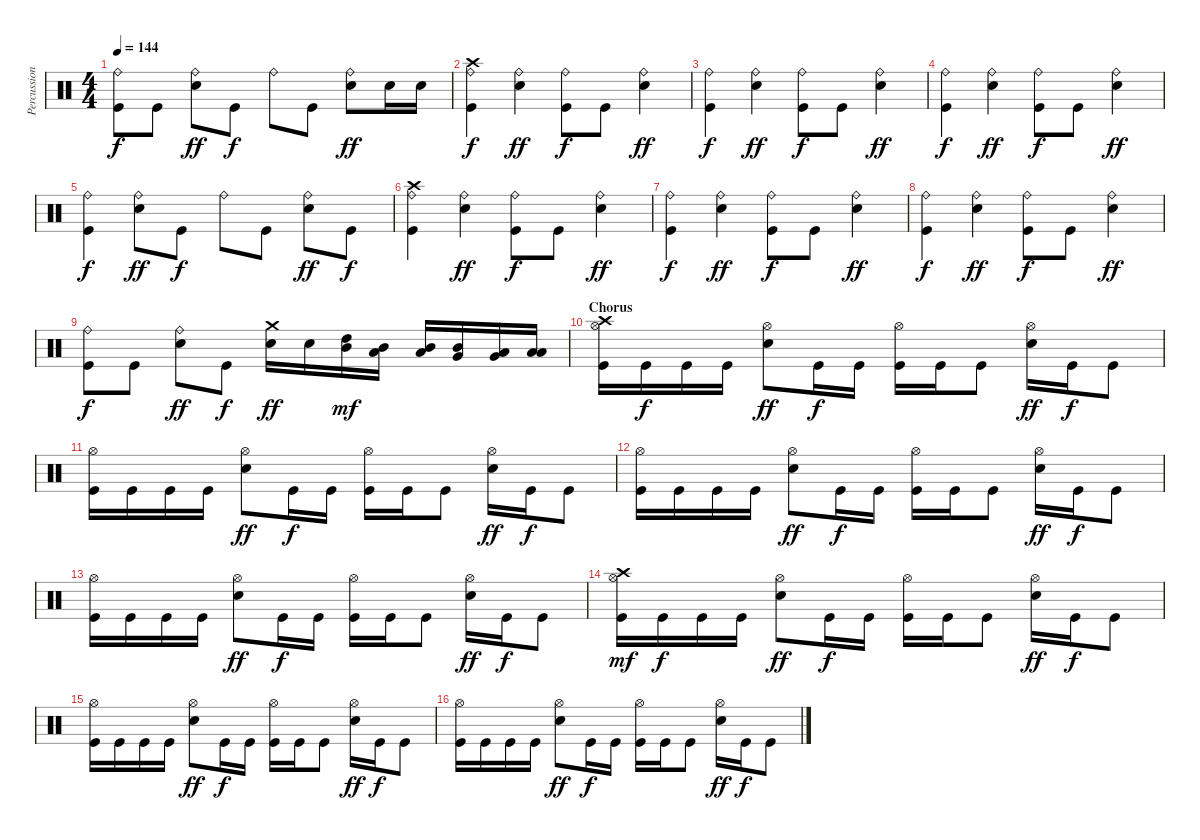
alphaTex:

\track ("Percussions" "Percussion") {instrument percussion}
\staff {score}
\articulation defaults
\ts (4 4)
\tempo 144
\clef neutral
\ks c
("Kick (hit)" "Ride (bell)").8{dy f} "Kick (hit)".8 ("Electric Snare (hit)" "Ride (bell)").8{dy ff} "Kick (hit)".8{dy f} "Ride (bell)".8 "Kick (hit)".8 ("Electric Snare (hit)" "Ride (bell)").8{dy ff} "Electric Snare (hit)".16 "Electric Snare (hit)".16 |
("Kick (hit)" "Ride (bell)" "Crash high (hit)").4{dy f} ("Electric Snare (hit)" "Ride (bell)").4{dy ff} ("Kick (hit)" "Ride (bell)").8{dy f} "Kick (hit)".8 ("Electric Snare (hit)" "Ride (bell)").4{dy ff} |
("Kick (hit)" "Ride (bell)").4{dy f} ("Electric Snare (hit)" "Ride (bell)").4{dy ff} ("Kick (hit)" "Ride (bell)").8{dy f} "Kick (hit)".8 ("Electric Snare (hit)" "Ride (bell)").4{dy ff} |
("Kick (hit)" "Ride (bell)").4{dy f} ("Electric Snare (hit)" "Ride (bell)").4{dy ff} ("Kick (hit)" "Ride (bell)").8{dy f} "Kick (hit)".8 ("Electric Snare (hit)" "Ride (bell)").4{dy ff} |
("Kick (hit)" "Ride (bell)").4{dy f} ("Electric Snare (hit)" "Ride (bell)").8{dy ff} "Kick (hit)".8{dy f} "Ride (bell)".8 "Kick (hit)".8 ("Electric Snare (hit)" "Ride (bell)").8{dy ff} "Kick (hit)".8{dy f} |
("Kick (hit)" "Ride (bell)" "Crash high (hit)").4 ("Electric Snare (hit)" "Ride (bell)").4{dy ff} ("Kick (hit)" "Ride (bell)").8{dy f} "Kick (hit)".8 ("Electric Snare (hit)" "Ride (bell)").4{dy ff} |
("Kick (hit)" "Ride (bell)").4{dy f} ("Electric Snare (hit)" "Ride (bell)").4{dy ff} ("Kick (hit)" "Ride (bell)").8{dy f} "Kick (hit)".8 ("Electric Snare (hit)" "Ride (bell)").4{dy ff} |
("Kick (hit)" "Ride (bell)").4{dy f} ("Electric Snare (hit)" "Ride (bell)").4{dy ff} ("Kick (hit)" "Ride (bell)").8{dy f} "Kick (hit)".8 ("Electric Snare (hit)" "Ride (bell)").4{dy ff} |
("Kick (hit)" "Ride (bell)").8{dy f} "Kick (hit)".8 ("Electric Snare (hit)" "Ride (bell)").8{dy ff} "Kick (hit)".8{dy f} ("Electric Snare (hit)" "Crash medium (hit)").16{dy ff} "Electric Snare (hit)".16 ("Mid Tom (hit)" "High Tom (hit)").16{dy mf} ("Low Tom (hit)" "Mid Tom (hit)").16 ("Low Tom (hit)" "Mid Tom (hit)").16 ("Very Low Tom (hit)" "Mid Tom (hit)").16 ("Very Low Tom (hit)" "Low Tom (hit)").16 ("Low Floor Tom (hit)" "Low Tom (hit)").16 |
\section ("" "Chorus")
("Kick (hit)" "Hi-Hat (open)" "Crash high (hit)").16 "Kick (hit)".16{dy f} "Kick (hit)".16 "Kick (hit)".16 ("Electric Snare (hit)" "Hi-Hat (open)").8{dy ff} "Kick (hit)".16{dy f} "Kick (hit)".16 ("Kick (hit)" "Hi-Hat (open)").16 "Kick (hit)".16 "Kick (hit)".8 ("Electric Snare (hit)" "Hi-Hat (open)").16{dy ff} "Kick (hit)".16{dy f} "Kick (hit)".8 |
("Kick (hit)" "Hi-Hat (open)").16 "Kick (hit)".16 "Kick (hit)".16 "Kick (hit)".16 ("Electric Snare (hit)" "Hi-Hat (open)").8{dy ff} "Kick (hit)".16{dy f} "Kick (hit)".16 ("Kick (hit)" "Hi-Hat (open)").16 "Kick (hit)".16 "Kick (hit)".8 ("Electric Snare (hit)" "Hi-Hat (open)").16{dy ff} "Kick (hit)".16{dy f} "Kick (hit)".8 |
("Kick (hit)" "Hi-Hat (open)").16 "Kick (hit)".16 "Kick (hit)".16 "Kick (hit)".16 ("Electric Snare (hit)" "Hi-Hat (open)").8{dy ff} "Kick (hit)".16{dy f} "Kick (hit)".16 ("Kick (hit)" "Hi-Hat (open)").16 "Kick (hit)".16 "Kick (hit)".8 ("Electric Snare (hit)" "Hi-Hat (open)").16{dy ff} "Kick (hit)".16{dy f} "Kick (hit)".8 |
("Kick (hit)" "Hi-Hat (open)").16 "Kick (hit)".16 "Kick (hit)".16 "Kick (hit)".16 ("Electric Snare (hit)" "Hi-Hat (open)").8{dy ff} "Kick (hit)".16{dy f} "Kick (hit)".16 ("Kick (hit)" "Hi-Hat (open)").16 "Kick (hit)".16 "Kick (hit)".8 ("Electric Snare (hit)" "Hi-Hat (open)").16{dy ff} "Kick (hit)".16{dy f} "Kick (hit)".8 |
("Kick (hit)" "Hi-Hat (open)" "Crash high (hit)").16{dy mf} "Kick (hit)".16{dy f} "Kick (hit)".16 "Kick (hit)".16 ("Electric Snare (hit)" "Hi-Hat (open)").8{dy ff} "Kick (hit)".16{dy f} "Kick (hit)".16 ("Kick (hit)" "Hi-Hat (open)").16 "Kick (hit)".16 "Kick (hit)".8 ("Electric Snare (hit)" "Hi-Hat (open)").16{dy ff} "Kick (hit)".16{dy f} "Kick (hit)".8 |
("Kick (hit)" "Hi-Hat (open)").16 "Kick (hit)".16 "Kick (hit)".16 "Kick (hit)".16 ("Electric Snare (hit)" "Hi-Hat (open)").8{dy ff} "Kick (hit)".16{dy f} "Kick (hit)".16 ("Kick (hit)" "Hi-Hat (open)").16 "Kick (hit)".16 "Kick (hit)".8 ("Electric Snare (hit)" "Hi-Hat (open)").16{dy ff} "Kick (hit)".16{dy f} "Kick (hit)".8 |
("Kick (hit)" "Hi-Hat (open)").16 "Kick (hit)".16 "Kick (hit)".16 "Kick (hit)".16 ("Electric Snare (hit)" "Hi-Hat (open)").8{dy ff} "Kick (hit)".16{dy f} "Kick (hit)".16 ("Kick (hit)" "Hi-Hat (open)").16 "Kick (hit)".16 "Kick (hit)".8 ("Electric Snare (hit)" "Hi-Hat (open)").16{dy ff} "Kick (hit)".16{dy f} "Kick (hit)".8
